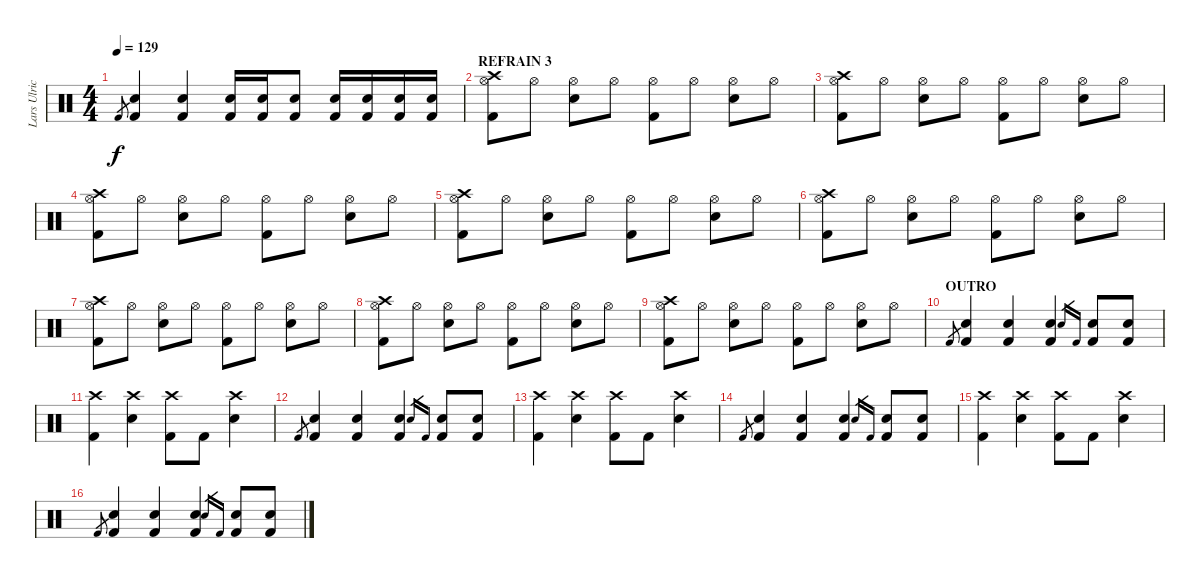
\track ("Lars Ulrich [drums]" "Lars Ulric") {instrument percussion}
\staff {score}
\articulation defaults
\ts (4 4)
\tempo 129
\clef neutral
\ks c "Kick (hit) 2".8{gr dy f}
("Electric Snare (hit)" "Kick (hit) 2").4 ("Electric Snare (hit)" "Kick (hit) 2").4 ("Electric Snare (hit)" "Kick (hit) 2").16 ("Electric Snare (hit)" "Kick (hit) 2").16 ("Electric Snare (hit)" "Kick (hit) 2").8 ("Electric Snare (hit)" "Kick (hit) 2").16 ("Electric Snare (hit)" "Kick (hit) 2").16 ("Electric Snare (hit)" "Kick (hit) 2").16 ("Electric Snare (hit)" "Kick (hit) 2").16 |
\section ("" "REFRAIN 3")
("Kick (hit) 2" "Crash high (hit)" "Hi-Hat (open)").8 "Hi-Hat (open)".8 ("Snare (hit) 2" "Hi-Hat (open)").8 "Hi-Hat (open)".8 ("Kick (hit) 2" "Hi-Hat (open)").8 "Hi-Hat (open)".8 ("Snare (hit) 2" "Hi-Hat (open)").8 "Hi-Hat (open)".8 |
("Kick (hit) 2" "Crash high (hit)" "Hi-Hat (open)").8 "Hi-Hat (open)".8 ("Snare (hit) 2" "Hi-Hat (open)").8 "Hi-Hat (open)".8 ("Kick (hit) 2" "Hi-Hat (open)").8 "Hi-Hat (open)".8 ("Snare (hit) 2" "Hi-Hat (open)").8 "Hi-Hat (open)".8 |
("Kick (hit) 2" "Crash high (hit)" "Hi-Hat (open)").8 "Hi-Hat (open)".8 ("Snare (hit) 2" "Hi-Hat (open)").8 "Hi-Hat (open)".8 ("Kick (hit) 2" "Hi-Hat (open)").8 "Hi-Hat (open)".8 ("Snare (hit) 2" "Hi-Hat (open)").8 "Hi-Hat (open)".8 |
("Kick (hit) 2" "Crash high (hit)" "Hi-Hat (open)").8 "Hi-Hat (open)".8 ("Snare (hit) 2" "Hi-Hat (open)").8 "Hi-Hat (open)".8 ("Kick (hit) 2" "Hi-Hat (open)").8 "Hi-Hat (open)".8 ("Snare (hit) 2" "Hi-Hat (open)").8 "Hi-Hat (open)".8 |
("Kick (hit) 2" "Crash high (hit)" "Hi-Hat (open)").8 "Hi-Hat (open)".8 ("Snare (hit) 2" "Hi-Hat (open)").8 "Hi-Hat (open)".8 ("Kick (hit) 2" "Hi-Hat (open)").8 "Hi-Hat (open)".8 ("Snare (hit) 2" "Hi-Hat (open)").8 "Hi-Hat (open)".8 |
("Kick (hit) 2" "Crash high (hit)" "Hi-Hat (open)").8 "Hi-Hat (open)".8 ("Snare (hit) 2" "Hi-Hat (open)").8 "Hi-Hat (open)".8 ("Kick (hit) 2" "Hi-Hat (open)").8 "Hi-Hat (open)".8 ("Snare (hit) 2" "Hi-Hat (open)").8 "Hi-Hat (open)".8 |
("Kick (hit) 2" "Crash high (hit)" "Hi-Hat (open)").8 "Hi-Hat (open)".8 ("Snare (hit) 2" "Hi-Hat (open)").8 "Hi-Hat (open)".8 ("Kick (hit) 2" "Hi-Hat (open)").8 "Hi-Hat (open)".8 ("Snare (hit) 2" "Hi-Hat (open)").8 "Hi-Hat (open)".8 |
("Kick (hit) 2" "Crash high (hit)" "Hi-Hat (open)").8 "Hi-Hat (open)".8 ("Snare (hit) 2" "Hi-Hat (open)").8 "Hi-Hat (open)".8 ("Kick (hit) 2" "Hi-Hat (open)").8 "Hi-Hat (open)".8 ("Snare (hit) 2" "Hi-Hat (open)").8 "Hi-Hat (open)".8 |
\section ("" "OUTRO")
"Kick (hit) 2".8{gr} ("Electric Snare (hit)" "Kick (hit) 2").4 ("Electric Snare (hit)" "Kick (hit) 2").4 ("Electric Snare (hit)" "Kick (hit) 2").4 "Electric Snare (hit)".16{gr} "Kick (hit) 2".16{gr} ("Electric Snare (hit)" "Kick (hit) 2").8 ("Electric Snare (hit)" "Kick (hit) 2").8 |
("Kick (hit) 2" "Crash high (hit)").4 ("Snare (hit) 2" "Crash high (hit)").4 ("Kick (hit) 2" "Crash high (hit)").8 "Kick (hit) 2".8 ("Snare (hit) 2" "Crash high (hit)").4 |
"Kick (hit) 2".8{gr} ("Electric Snare (hit)" "Kick (hit) 2").4 ("Electric Snare (hit)" "Kick (hit) 2").4 ("Electric Snare (hit)" "Kick (hit) 2").4 "Electric Snare (hit)".16{gr} "Kick (hit) 2".16{gr} ("Electric Snare (hit)" "Kick (hit) 2").8 ("Electric Snare (hit)" "Kick (hit) 2").8 |
("Kick (hit) 2" "Crash high (hit)").4 ("Snare (hit) 2" "Crash high (hit)").4 ("Kick (hit) 2" "Crash high (hit)").8 "Kick (hit) 2".8 ("Snare (hit) 2" "Crash high (hit)").4 |
"Kick (hit) 2".8{gr} ("Electric Snare (hit)" "Kick (hit) 2").4 ("Electric Snare (hit)" "Kick (hit) 2").4 ("Electric Snare (hit)" "Kick (hit) 2").4 "Electric Snare (hit)".16{gr} "Kick (hit) 2".16{gr} ("Electric Snare (hit)" "Kick (hit) 2").8 ("Electric Snare (hit)" "Kick (hit) 2").8 |
("Kick (hit) 2" "Crash high (hit)").4 ("Snare (hit) 2" "Crash high (hit)").4 ("Kick (hit) 2" "Crash high (hit)").8 "Kick (hit) 2".8 ("Snare (hit) 2" "Crash high (hit)").4 |
"Kick (hit) 2".8{gr} ("Electric Snare (hit)" "Kick (hit) 2").4 ("Electric Snare (hit)" "Kick (hit) 2").4 ("Electric Snare (hit)" "Kick (hit) 2").4 "Electric Snare (hit)".16{gr} "Kick (hit) 2".16{gr} ("Electric Snare (hit)" "Kick (hit) 2").8 ("Electric Snare (hit)" "Kick (hit) 2").8
